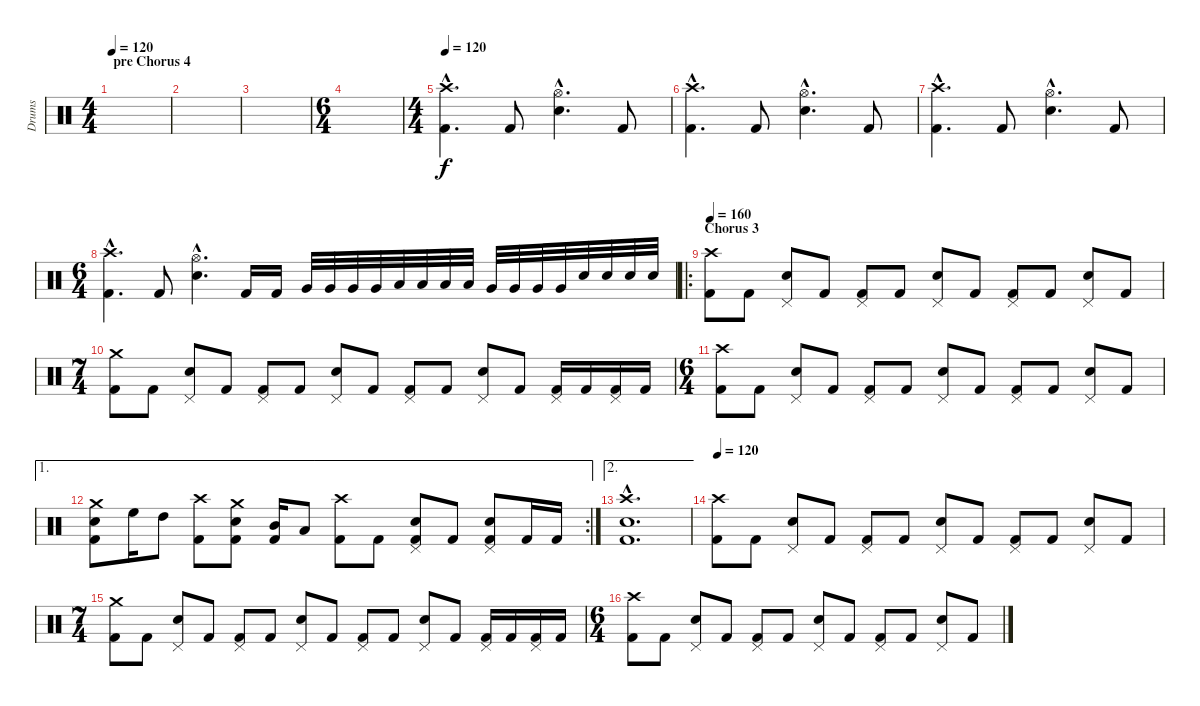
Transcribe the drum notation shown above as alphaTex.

\track ("Drums" "Drums") {instrument percussion}
\staff {score}
\articulation defaults
\ts (4 4)
\section ("" "pre Chorus 4")
\tempo 120
\clef neutral
\ks c
|
|
|
\ts (6 4)
|
\ts (4 4)
\tempo 120
("Crash high (hit)"{hac} "Kick (hit) 2"{hac}).4{d} "Kick (hit) 2".8 ("Hi-Hat (open)"{hac} "Electric Snare (hit)"{hac}).4{d} "Kick (hit) 2".8 |
("Crash high (hit)"{hac} "Kick (hit) 2"{hac}).4{d} "Kick (hit) 2".8 ("Hi-Hat (open)"{hac} "Electric Snare (hit)"{hac}).4{d} "Kick (hit) 2".8 |
("Crash high (hit)"{hac} "Kick (hit) 2"{hac}).4{d} "Kick (hit) 2".8 ("Hi-Hat (open)"{hac} "Electric Snare (hit)"{hac}).4{d} "Kick (hit) 2".8 |
\ts (6 4)
("Crash high (hit)"{hac} "Kick (hit) 2"{hac}).4{d} "Kick (hit) 2".8 ("Hi-Hat (open)"{hac} "Electric Snare (hit)"{hac}).4{d} "Kick (hit) 2".16 "Kick (hit) 2".16 "Very Low Tom (hit)".32 "Very Low Tom (hit)".32 "Very Low Tom (hit)".32 "Very Low Tom (hit)".32 "Low Floor Tom (hit)".32 "Low Floor Tom (hit)".32 "Low Floor Tom (hit)".32 "Low Floor Tom (hit)".32 "Very Low Tom (hit)".32 "Very Low Tom (hit)".32 "Very Low Tom (hit)".32 "Very Low Tom (hit)".32 "Electric Snare (hit)".32 "Electric Snare (hit)".32 "Electric Snare (hit)".32 "Electric Snare (hit)".32 |
\ro
\section ("" "Chorus 3")
\tempo 160
("Crash high (hit)" "Kick (hit) 2").8 "Kick (hit) 2".8 ("Pedal Hi-Hat (hit)" "Snare (hit) 2").8 "Kick (hit) 2".8 ("Pedal Hi-Hat (hit)" "Kick (hit) 2").8 "Kick (hit) 2".8 ("Pedal Hi-Hat (hit)" "Snare (hit) 2").8 "Kick (hit) 2".8 ("Pedal Hi-Hat (hit)" "Kick (hit) 2").8 "Kick (hit) 2".8 ("Pedal Hi-Hat (hit)" "Snare (hit) 2").8 "Kick (hit) 2".8 |
\ts (7 4)
("Crash medium (hit)" "Kick (hit) 2").8 "Kick (hit) 2".8 ("Pedal Hi-Hat (hit)" "Snare (hit) 2").8 "Kick (hit) 2".8 ("Pedal Hi-Hat (hit)" "Kick (hit) 2").8 "Kick (hit) 2".8 ("Pedal Hi-Hat (hit)" "Snare (hit) 2").8 "Kick (hit) 2".8 ("Pedal Hi-Hat (hit)" "Kick (hit) 2").8 "Kick (hit) 2".8 ("Pedal Hi-Hat (hit)" "Snare (hit) 2").8 "Kick (hit) 2".8 ("Pedal Hi-Hat (hit)" "Kick (hit) 2").16 "Kick (hit) 2".16 ("Pedal Hi-Hat (hit)" "Kick (hit) 2").16 "Kick (hit) 2".16 |
\ts (6 4)
("Crash high (hit)" "Kick (hit) 2").8 "Kick (hit) 2".8 ("Pedal Hi-Hat (hit)" "Snare (hit) 2").8 "Kick (hit) 2".8 ("Pedal Hi-Hat (hit)" "Kick (hit) 2").8 "Kick (hit) 2".8 ("Pedal Hi-Hat (hit)" "Snare (hit) 2").8 "Kick (hit) 2".8 ("Pedal Hi-Hat (hit)" "Kick (hit) 2").8 "Kick (hit) 2".8 ("Pedal Hi-Hat (hit)" "Snare (hit) 2").8 "Kick (hit) 2".8 |
\ae 1
\rc 2
("Crash medium (hit)" "Snare (hit) 2" "Kick (hit) 2").8 "High Floor Tom (hit)".16 "High Tom (hit)".8 ("Crash high (hit)" "Kick (hit) 2").8 ("Crash medium (hit)" "Snare (hit) 2" "Kick (hit) 2").8 ("Mid Tom (hit)" "Kick (hit) 2").16 "Low Tom (hit)".8 ("Crash high (hit)" "Kick (hit) 2").8 "Kick (hit) 2".8 ("Pedal Hi-Hat (hit)" "Snare (hit) 2" "Kick (hit) 2").8 "Kick (hit) 2".8 ("Pedal Hi-Hat (hit)" "Snare (hit) 2" "Kick (hit) 2").8 "Kick (hit) 2".16 "Kick (hit) 2".16 |
\ae 2
("Crash high (hit)"{hac} "Electric Snare (hit)"{hac} "Kick (hit) 2"{hac}).1{d} |
\tempo 120
("Crash high (hit)" "Kick (hit) 2").8 "Kick (hit) 2".8 ("Pedal Hi-Hat (hit)" "Snare (hit) 2").8 "Kick (hit) 2".8 ("Pedal Hi-Hat (hit)" "Kick (hit) 2").8 "Kick (hit) 2".8 ("Pedal Hi-Hat (hit)" "Snare (hit) 2").8 "Kick (hit) 2".8 ("Pedal Hi-Hat (hit)" "Kick (hit) 2").8 "Kick (hit) 2".8 ("Pedal Hi-Hat (hit)" "Snare (hit) 2").8 "Kick (hit) 2".8 |
\ts (7 4)
("Crash medium (hit)" "Kick (hit) 2").8 "Kick (hit) 2".8 ("Pedal Hi-Hat (hit)" "Snare (hit) 2").8 "Kick (hit) 2".8 ("Pedal Hi-Hat (hit)" "Kick (hit) 2").8 "Kick (hit) 2".8 ("Pedal Hi-Hat (hit)" "Snare (hit) 2").8 "Kick (hit) 2".8 ("Pedal Hi-Hat (hit)" "Kick (hit) 2").8 "Kick (hit) 2".8 ("Pedal Hi-Hat (hit)" "Snare (hit) 2").8 "Kick (hit) 2".8 ("Pedal Hi-Hat (hit)" "Kick (hit) 2").16 "Kick (hit) 2".16 ("Pedal Hi-Hat (hit)" "Kick (hit) 2").16 "Kick (hit) 2".16 |
\ts (6 4)
("Crash high (hit)" "Kick (hit) 2").8 "Kick (hit) 2".8 ("Pedal Hi-Hat (hit)" "Snare (hit) 2").8 "Kick (hit) 2".8 ("Pedal Hi-Hat (hit)" "Kick (hit) 2").8 "Kick (hit) 2".8 ("Pedal Hi-Hat (hit)" "Snare (hit) 2").8 "Kick (hit) 2".8 ("Pedal Hi-Hat (hit)" "Kick (hit) 2").8 "Kick (hit) 2".8 ("Pedal Hi-Hat (hit)" "Snare (hit) 2").8 "Kick (hit) 2".8
